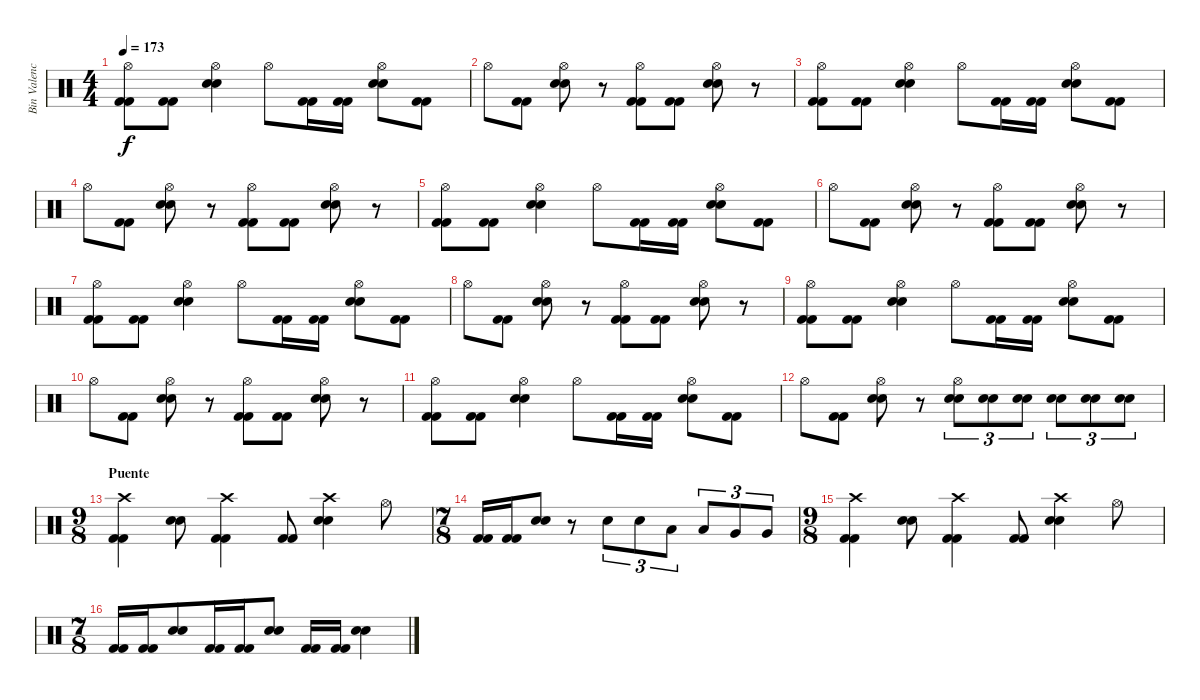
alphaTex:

\track ("Bin Valencia (Bateria)" "Bin Valenc") {instrument percussion}
\staff {score}
\articulation defaults
\ts (4 4)
\tempo 173
\clef neutral
\ks c
("Hi-Hat (open)" "Kick (hit) 2" "Kick (hit) 2").8{dy f} ("Kick (hit) 2" "Kick (hit) 2").8 ("Hi-Hat (open)" "Snare (hit) 2" "Snare (hit) 2").4 "Hi-Hat (open)".8 ("Kick (hit) 2" "Kick (hit) 2").16 ("Kick (hit) 2" "Kick (hit) 2").16 ("Hi-Hat (open)" "Snare (hit) 2" "Snare (hit) 2").8 ("Kick (hit) 2" "Kick (hit) 2").8 |
"Hi-Hat (open)".8 ("Kick (hit) 2" "Kick (hit) 2").8 ("Hi-Hat (open)" "Snare (hit) 2" "Snare (hit) 2").8 r.8 ("Hi-Hat (open)" "Kick (hit) 2" "Kick (hit) 2").8 ("Kick (hit) 2" "Kick (hit) 2").8 ("Hi-Hat (open)" "Snare (hit) 2" "Snare (hit) 2").8 r.8 |
("Hi-Hat (open)" "Kick (hit) 2" "Kick (hit) 2").8 ("Kick (hit) 2" "Kick (hit) 2").8 ("Hi-Hat (open)" "Snare (hit) 2" "Snare (hit) 2").4 "Hi-Hat (open)".8 ("Kick (hit) 2" "Kick (hit) 2").16 ("Kick (hit) 2" "Kick (hit) 2").16 ("Hi-Hat (open)" "Snare (hit) 2" "Snare (hit) 2").8 ("Kick (hit) 2" "Kick (hit) 2").8 |
"Hi-Hat (open)".8 ("Kick (hit) 2" "Kick (hit) 2").8 ("Hi-Hat (open)" "Snare (hit) 2" "Snare (hit) 2").8 r.8 ("Hi-Hat (open)" "Kick (hit) 2" "Kick (hit) 2").8 ("Kick (hit) 2" "Kick (hit) 2").8 ("Hi-Hat (open)" "Snare (hit) 2" "Snare (hit) 2").8 r.8 |
("Hi-Hat (open)" "Kick (hit) 2" "Kick (hit) 2").8 ("Kick (hit) 2" "Kick (hit) 2").8 ("Hi-Hat (open)" "Snare (hit) 2" "Snare (hit) 2").4 "Hi-Hat (open)".8 ("Kick (hit) 2" "Kick (hit) 2").16 ("Kick (hit) 2" "Kick (hit) 2").16 ("Hi-Hat (open)" "Snare (hit) 2" "Snare (hit) 2").8 ("Kick (hit) 2" "Kick (hit) 2").8 |
"Hi-Hat (open)".8 ("Kick (hit) 2" "Kick (hit) 2").8 ("Hi-Hat (open)" "Snare (hit) 2" "Snare (hit) 2").8 r.8 ("Hi-Hat (open)" "Kick (hit) 2" "Kick (hit) 2").8 ("Kick (hit) 2" "Kick (hit) 2").8 ("Hi-Hat (open)" "Snare (hit) 2" "Snare (hit) 2").8 r.8 |
("Hi-Hat (open)" "Kick (hit) 2" "Kick (hit) 2").8 ("Kick (hit) 2" "Kick (hit) 2").8 ("Hi-Hat (open)" "Snare (hit) 2" "Snare (hit) 2").4 "Hi-Hat (open)".8 ("Kick (hit) 2" "Kick (hit) 2").16 ("Kick (hit) 2" "Kick (hit) 2").16 ("Hi-Hat (open)" "Snare (hit) 2" "Snare (hit) 2").8 ("Kick (hit) 2" "Kick (hit) 2").8 |
"Hi-Hat (open)".8 ("Kick (hit) 2" "Kick (hit) 2").8 ("Hi-Hat (open)" "Snare (hit) 2" "Snare (hit) 2").8 r.8 ("Hi-Hat (open)" "Kick (hit) 2" "Kick (hit) 2").8 ("Kick (hit) 2" "Kick (hit) 2").8 ("Hi-Hat (open)" "Snare (hit) 2" "Snare (hit) 2").8 r.8 |
("Hi-Hat (open)" "Kick (hit) 2" "Kick (hit) 2").8 ("Kick (hit) 2" "Kick (hit) 2").8 ("Hi-Hat (open)" "Snare (hit) 2" "Snare (hit) 2").4 "Hi-Hat (open)".8 ("Kick (hit) 2" "Kick (hit) 2").16 ("Kick (hit) 2" "Kick (hit) 2").16 ("Hi-Hat (open)" "Snare (hit) 2" "Snare (hit) 2").8 ("Kick (hit) 2" "Kick (hit) 2").8 |
"Hi-Hat (open)".8 ("Kick (hit) 2" "Kick (hit) 2").8 ("Hi-Hat (open)" "Snare (hit) 2" "Snare (hit) 2").8 r.8 ("Hi-Hat (open)" "Kick (hit) 2" "Kick (hit) 2").8 ("Kick (hit) 2" "Kick (hit) 2").8 ("Hi-Hat (open)" "Snare (hit) 2" "Snare (hit) 2").8 r.8 |
("Hi-Hat (open)" "Kick (hit) 2" "Kick (hit) 2").8 ("Kick (hit) 2" "Kick (hit) 2").8 ("Hi-Hat (open)" "Snare (hit) 2" "Snare (hit) 2").4 "Hi-Hat (open)".8 ("Kick (hit) 2" "Kick (hit) 2").16 ("Kick (hit) 2" "Kick (hit) 2").16 ("Hi-Hat (open)" "Snare (hit) 2" "Snare (hit) 2").8 ("Kick (hit) 2" "Kick (hit) 2").8 |
"Hi-Hat (open)".8 ("Kick (hit) 2" "Kick (hit) 2").8 ("Hi-Hat (open)" "Snare (hit) 2" "Snare (hit) 2").8 r.8 ("Hi-Hat (open)" "Snare (hit) 2" "Snare (hit) 2").8{tu (3 2)} ("Snare (hit) 2" "Snare (hit) 2").8{tu (3 2)} ("Snare (hit) 2" "Snare (hit) 2").8{tu (3 2)} ("Snare (hit) 2" "Snare (hit) 2").8{tu (3 2)} ("Snare (hit) 2" "Snare (hit) 2").8{tu (3 2)} ("Snare (hit) 2" "Snare (hit) 2").8{tu (3 2)} |
\ts (9 8)
\section ("" "Puente")
("Crash high (hit)" "Kick (hit) 2" "Kick (hit) 2").4 ("Snare (hit) 2" "Snare (hit) 2").8 ("Crash high (hit)" "Kick (hit) 2" "Kick (hit) 2").4 ("Kick (hit) 2" "Kick (hit) 2").8 ("Crash high (hit)" "Snare (hit) 2" "Snare (hit) 2").4 "Hi-Hat (open)".8 |
\ts (7 8)
("Kick (hit) 2" "Kick (hit) 2").16 ("Kick (hit) 2" "Kick (hit) 2").16 ("Snare (hit) 2" "Snare (hit) 2").8 r.8 "Snare (hit) 2".8{tu (3 2)} "Snare (hit) 2".8{tu (3 2)} "Low Tom (hit)".8{tu (3 2)} "Low Tom (hit)".8{tu (3 2)} "Very Low Tom (hit)".8{tu (3 2)} "Very Low Tom (hit)".8{tu (3 2)} |
\ts (9 8)
("Crash high (hit)" "Kick (hit) 2" "Kick (hit) 2").4 ("Snare (hit) 2" "Snare (hit) 2").8 ("Crash high (hit)" "Kick (hit) 2" "Kick (hit) 2").4 ("Kick (hit) 2" "Kick (hit) 2").8 ("Crash high (hit)" "Snare (hit) 2" "Snare (hit) 2").4 "Hi-Hat (open)".8 |
\ts (7 8)
("Kick (hit) 2" "Kick (hit) 2").16 ("Kick (hit) 2" "Kick (hit) 2").16 ("Snare (hit) 2" "Snare (hit) 2").8 ("Kick (hit) 2" "Kick (hit) 2").16 ("Kick (hit) 2" "Kick (hit) 2").16 ("Snare (hit) 2" "Snare (hit) 2").8 ("Kick (hit) 2" "Kick (hit) 2").16 ("Kick (hit) 2" "Kick (hit) 2").16 ("Snare (hit) 2" "Snare (hit) 2").4
